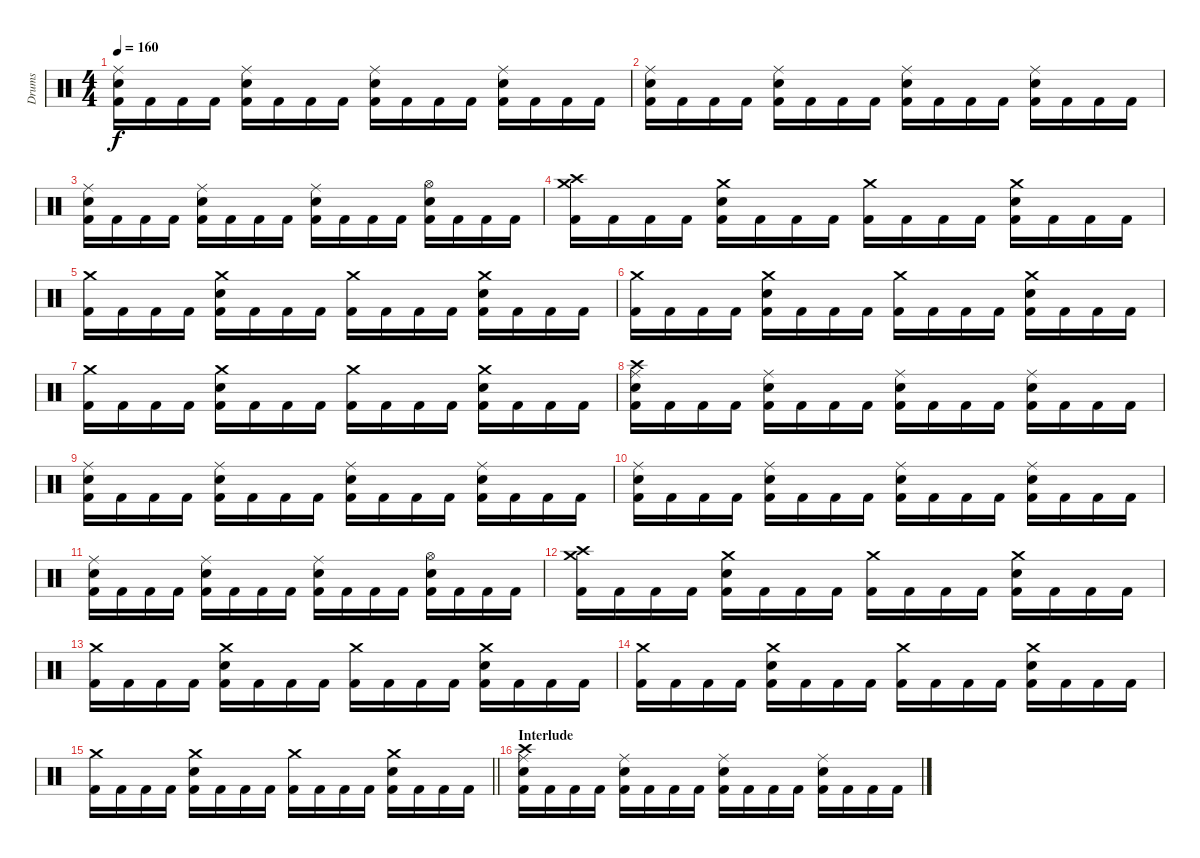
\track ("Drums" "Drums") {instrument percussion}
\staff {score}
\articulation defaults
\ts (4 4)
\tempo 160
\clef neutral
\ks c
("Snare (hit) 2" "Kick (hit) 2" "Ride (middle)").16{dy f} "Kick (hit) 2".16 "Kick (hit) 2".16 "Kick (hit) 2".16 ("Snare (hit) 2" "Kick (hit) 2" "Ride (middle)").16 "Kick (hit) 2".16 "Kick (hit) 2".16 "Kick (hit) 2".16 ("Snare (hit) 2" "Kick (hit) 2" "Ride (middle)").16 "Kick (hit) 2".16 "Kick (hit) 2".16 "Kick (hit) 2".16 ("Snare (hit) 2" "Kick (hit) 2" "Ride (middle)").16 "Kick (hit) 2".16 "Kick (hit) 2".16 "Kick (hit) 2".16 |
("Snare (hit) 2" "Kick (hit) 2" "Ride (middle)").16 "Kick (hit) 2".16 "Kick (hit) 2".16 "Kick (hit) 2".16 ("Snare (hit) 2" "Kick (hit) 2" "Ride (middle)").16 "Kick (hit) 2".16 "Kick (hit) 2".16 "Kick (hit) 2".16 ("Snare (hit) 2" "Kick (hit) 2" "Ride (middle)").16 "Kick (hit) 2".16 "Kick (hit) 2".16 "Kick (hit) 2".16 ("Snare (hit) 2" "Kick (hit) 2" "Ride (middle)").16 "Kick (hit) 2".16 "Kick (hit) 2".16 "Kick (hit) 2".16 |
("Snare (hit) 2" "Kick (hit) 2" "Ride (middle)").16 "Kick (hit) 2".16 "Kick (hit) 2".16 "Kick (hit) 2".16 ("Snare (hit) 2" "Kick (hit) 2" "Ride (middle)").16 "Kick (hit) 2".16 "Kick (hit) 2".16 "Kick (hit) 2".16 ("Snare (hit) 2" "Kick (hit) 2" "Ride (middle)").16 "Kick (hit) 2".16 "Kick (hit) 2".16 "Kick (hit) 2".16 ("Snare (hit) 2" "Kick (hit) 2" "Hi-Hat (open)").16 "Kick (hit) 2".16 "Kick (hit) 2".16 "Kick (hit) 2".16 |
("Kick (hit) 2" "Crash medium (hit)" "Crash high (hit)").16 "Kick (hit) 2".16 "Kick (hit) 2".16 "Kick (hit) 2".16 ("Snare (hit) 2" "Kick (hit) 2" "Crash medium (hit)").16 "Kick (hit) 2".16 "Kick (hit) 2".16 "Kick (hit) 2".16 ("Kick (hit) 2" "Crash medium (hit)").16 "Kick (hit) 2".16 "Kick (hit) 2".16 "Kick (hit) 2".16 ("Snare (hit) 2" "Kick (hit) 2" "Crash medium (hit)").16 "Kick (hit) 2".16 "Kick (hit) 2".16 "Kick (hit) 2".16 |
("Kick (hit) 2" "Crash medium (hit)").16 "Kick (hit) 2".16 "Kick (hit) 2".16 "Kick (hit) 2".16 ("Snare (hit) 2" "Kick (hit) 2" "Crash medium (hit)").16 "Kick (hit) 2".16 "Kick (hit) 2".16 "Kick (hit) 2".16 ("Kick (hit) 2" "Crash medium (hit)").16 "Kick (hit) 2".16 "Kick (hit) 2".16 "Kick (hit) 2".16 ("Snare (hit) 2" "Kick (hit) 2" "Crash medium (hit)").16 "Kick (hit) 2".16 "Kick (hit) 2".16 "Kick (hit) 2".16 |
("Kick (hit) 2" "Crash medium (hit)").16 "Kick (hit) 2".16 "Kick (hit) 2".16 "Kick (hit) 2".16 ("Snare (hit) 2" "Kick (hit) 2" "Crash medium (hit)").16 "Kick (hit) 2".16 "Kick (hit) 2".16 "Kick (hit) 2".16 ("Kick (hit) 2" "Crash medium (hit)").16 "Kick (hit) 2".16 "Kick (hit) 2".16 "Kick (hit) 2".16 ("Snare (hit) 2" "Kick (hit) 2" "Crash medium (hit)").16 "Kick (hit) 2".16 "Kick (hit) 2".16 "Kick (hit) 2".16 |
("Kick (hit) 2" "Crash medium (hit)").16 "Kick (hit) 2".16 "Kick (hit) 2".16 "Kick (hit) 2".16 ("Snare (hit) 2" "Kick (hit) 2" "Crash medium (hit)").16 "Kick (hit) 2".16 "Kick (hit) 2".16 "Kick (hit) 2".16 ("Kick (hit) 2" "Crash medium (hit)").16 "Kick (hit) 2".16 "Kick (hit) 2".16 "Kick (hit) 2".16 ("Snare (hit) 2" "Kick (hit) 2" "Crash medium (hit)").16 "Kick (hit) 2".16 "Kick (hit) 2".16 "Kick (hit) 2".16 |
("Snare (hit) 2" "Kick (hit) 2" "Ride (middle)" "Crash high (hit)").16 "Kick (hit) 2".16 "Kick (hit) 2".16 "Kick (hit) 2".16 ("Snare (hit) 2" "Kick (hit) 2" "Ride (middle)").16 "Kick (hit) 2".16 "Kick (hit) 2".16 "Kick (hit) 2".16 ("Snare (hit) 2" "Kick (hit) 2" "Ride (middle)").16 "Kick (hit) 2".16 "Kick (hit) 2".16 "Kick (hit) 2".16 ("Snare (hit) 2" "Kick (hit) 2" "Ride (middle)").16 "Kick (hit) 2".16 "Kick (hit) 2".16 "Kick (hit) 2".16 |
("Snare (hit) 2" "Kick (hit) 2" "Ride (middle)").16 "Kick (hit) 2".16 "Kick (hit) 2".16 "Kick (hit) 2".16 ("Snare (hit) 2" "Kick (hit) 2" "Ride (middle)").16 "Kick (hit) 2".16 "Kick (hit) 2".16 "Kick (hit) 2".16 ("Snare (hit) 2" "Kick (hit) 2" "Ride (middle)").16 "Kick (hit) 2".16 "Kick (hit) 2".16 "Kick (hit) 2".16 ("Snare (hit) 2" "Kick (hit) 2" "Ride (middle)").16 "Kick (hit) 2".16 "Kick (hit) 2".16 "Kick (hit) 2".16 |
("Snare (hit) 2" "Kick (hit) 2" "Ride (middle)").16 "Kick (hit) 2".16 "Kick (hit) 2".16 "Kick (hit) 2".16 ("Snare (hit) 2" "Kick (hit) 2" "Ride (middle)").16 "Kick (hit) 2".16 "Kick (hit) 2".16 "Kick (hit) 2".16 ("Snare (hit) 2" "Kick (hit) 2" "Ride (middle)").16 "Kick (hit) 2".16 "Kick (hit) 2".16 "Kick (hit) 2".16 ("Snare (hit) 2" "Kick (hit) 2" "Ride (middle)").16 "Kick (hit) 2".16 "Kick (hit) 2".16 "Kick (hit) 2".16 |
("Snare (hit) 2" "Kick (hit) 2" "Ride (middle)").16 "Kick (hit) 2".16 "Kick (hit) 2".16 "Kick (hit) 2".16 ("Snare (hit) 2" "Kick (hit) 2" "Ride (middle)").16 "Kick (hit) 2".16 "Kick (hit) 2".16 "Kick (hit) 2".16 ("Snare (hit) 2" "Kick (hit) 2" "Ride (middle)").16 "Kick (hit) 2".16 "Kick (hit) 2".16 "Kick (hit) 2".16 ("Snare (hit) 2" "Kick (hit) 2" "Hi-Hat (open)").16 "Kick (hit) 2".16 "Kick (hit) 2".16 "Kick (hit) 2".16 |
("Kick (hit) 2" "Crash medium (hit)" "Crash high (hit)").16 "Kick (hit) 2".16 "Kick (hit) 2".16 "Kick (hit) 2".16 ("Snare (hit) 2" "Kick (hit) 2" "Crash medium (hit)").16 "Kick (hit) 2".16 "Kick (hit) 2".16 "Kick (hit) 2".16 ("Kick (hit) 2" "Crash medium (hit)").16 "Kick (hit) 2".16 "Kick (hit) 2".16 "Kick (hit) 2".16 ("Snare (hit) 2" "Kick (hit) 2" "Crash medium (hit)").16 "Kick (hit) 2".16 "Kick (hit) 2".16 "Kick (hit) 2".16 |
("Kick (hit) 2" "Crash medium (hit)").16 "Kick (hit) 2".16 "Kick (hit) 2".16 "Kick (hit) 2".16 ("Snare (hit) 2" "Kick (hit) 2" "Crash medium (hit)").16 "Kick (hit) 2".16 "Kick (hit) 2".16 "Kick (hit) 2".16 ("Kick (hit) 2" "Crash medium (hit)").16 "Kick (hit) 2".16 "Kick (hit) 2".16 "Kick (hit) 2".16 ("Snare (hit) 2" "Kick (hit) 2" "Crash medium (hit)").16 "Kick (hit) 2".16 "Kick (hit) 2".16 "Kick (hit) 2".16 |
("Kick (hit) 2" "Crash medium (hit)").16 "Kick (hit) 2".16 "Kick (hit) 2".16 "Kick (hit) 2".16 ("Snare (hit) 2" "Kick (hit) 2" "Crash medium (hit)").16 "Kick (hit) 2".16 "Kick (hit) 2".16 "Kick (hit) 2".16 ("Kick (hit) 2" "Crash medium (hit)").16 "Kick (hit) 2".16 "Kick (hit) 2".16 "Kick (hit) 2".16 ("Snare (hit) 2" "Kick (hit) 2" "Crash medium (hit)").16 "Kick (hit) 2".16 "Kick (hit) 2".16 "Kick (hit) 2".16 |
\barLineRight lightlight
("Kick (hit) 2" "Crash medium (hit)").16 "Kick (hit) 2".16 "Kick (hit) 2".16 "Kick (hit) 2".16 ("Snare (hit) 2" "Kick (hit) 2" "Crash medium (hit)").16 "Kick (hit) 2".16 "Kick (hit) 2".16 "Kick (hit) 2".16 ("Kick (hit) 2" "Crash medium (hit)").16 "Kick (hit) 2".16 "Kick (hit) 2".16 "Kick (hit) 2".16 ("Snare (hit) 2" "Kick (hit) 2" "Crash medium (hit)").16 "Kick (hit) 2".16 "Kick (hit) 2".16 "Kick (hit) 2".16 |
\section ("" "Interlude")
("Snare (hit) 2" "Kick (hit) 2" "Ride (middle)" "Crash high (hit)").16 "Kick (hit) 2".16 "Kick (hit) 2".16 "Kick (hit) 2".16 ("Snare (hit) 2" "Kick (hit) 2" "Ride (middle)").16 "Kick (hit) 2".16 "Kick (hit) 2".16 "Kick (hit) 2".16 ("Snare (hit) 2" "Kick (hit) 2" "Ride (middle)").16 "Kick (hit) 2".16 "Kick (hit) 2".16 "Kick (hit) 2".16 ("Snare (hit) 2" "Kick (hit) 2" "Ride (middle)").16 "Kick (hit) 2".16 "Kick (hit) 2".16 "Kick (hit) 2".16
